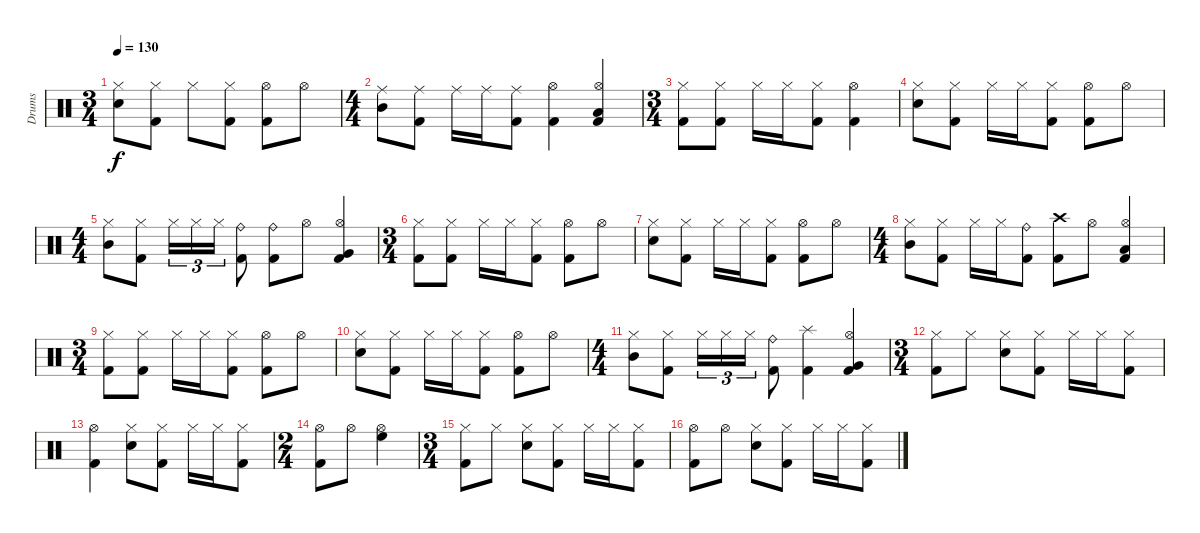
\track ("Drums" "Drums") {instrument percussion}
\staff {score}
\articulation defaults
\ts (3 4)
\tempo 130
\clef neutral
\ks c
("Hi-Hat (closed)" "Snare (hit) 2").8{dy f} ("Hi-Hat (closed)" "Kick (hit) 2").8 "Hi-Hat (closed)".8 ("Hi-Hat (closed)" "Kick (hit) 2").8 ("Hi-Hat (open)" "Kick (hit) 2").8 "Hi-Hat (open)".8 |
\ts (4 4)
("Ride (middle)" "Mid Tom (hit)").8 ("Ride (middle)" "Kick (hit) 2").8 "Ride (middle)".16 "Ride (middle)".16 ("Ride (middle)" "Kick (hit) 2").8 ("Hi-Hat (open)" "Kick (hit) 2").4 ("Hi-Hat (open)" "Low Floor Tom (hit)" "Kick (hit) 2").4 |
\ts (3 4)
("Hi-Hat (closed)" "Kick (hit) 2").8 ("Hi-Hat (closed)" "Kick (hit) 2").8 "Hi-Hat (closed)".16 "Hi-Hat (closed)".16 ("Hi-Hat (closed)" "Kick (hit) 2").8 ("Hi-Hat (open)" "Kick (hit) 2").4 |
("Hi-Hat (closed)" "Snare (hit) 2").8 ("Hi-Hat (closed)" "Kick (hit) 2").8 "Hi-Hat (closed)".16 "Hi-Hat (closed)".16 ("Hi-Hat (closed)" "Kick (hit) 2").8 ("Hi-Hat (open)" "Kick (hit) 2").8 "Hi-Hat (open)".8 |
\ts (4 4)
("Hi-Hat (closed)" "Mid Tom (hit)").8 ("Hi-Hat (closed)" "Kick (hit) 2").8 "Hi-Hat (closed)".16{tu (3 2)} "Hi-Hat (closed)".16{tu (3 2)} "Hi-Hat (closed)".16{tu (3 2)} ("Ride (bell)" "Kick (hit) 2").8 ("Ride (bell)" "Kick (hit) 2").8 "Hi-Hat (open)".8 ("Hi-Hat (open)" "Very Low Tom (hit)" "Kick (hit) 2").4 |
\ts (3 4)
("Hi-Hat (closed)" "Kick (hit) 2").8 ("Hi-Hat (closed)" "Kick (hit) 2").8 "Hi-Hat (closed)".16 "Hi-Hat (closed)".16 ("Hi-Hat (closed)" "Kick (hit) 2").8 ("Hi-Hat (open)" "Kick (hit) 2").8 "Hi-Hat (open)".8 |
("Hi-Hat (closed)" "Snare (hit) 2").8 ("Hi-Hat (closed)" "Kick (hit) 2").8 "Hi-Hat (closed)".16 "Hi-Hat (closed)".16 ("Hi-Hat (closed)" "Kick (hit) 2").8 ("Hi-Hat (open)" "Kick (hit) 2").8 "Hi-Hat (open)".8 |
\ts (4 4)
("Hi-Hat (closed)" "Mid Tom (hit)").8 ("Hi-Hat (closed)" "Kick (hit) 2").8 "Hi-Hat (closed)".16 "Hi-Hat (closed)".16 ("Ride (bell)" "Kick (hit) 2").8 ("Crash high (hit)" "Kick (hit) 2").8 "Hi-Hat (open)".8 ("Hi-Hat (open)" "Low Floor Tom (hit)" "Kick (hit) 2").4 |
\ts (3 4)
("Hi-Hat (closed)" "Kick (hit) 2").8 ("Hi-Hat (closed)" "Kick (hit) 2").8 "Hi-Hat (closed)".16 "Hi-Hat (closed)".16 ("Hi-Hat (closed)" "Kick (hit) 2").8 ("Hi-Hat (open)" "Kick (hit) 2").8 "Hi-Hat (open)".8 |
("Hi-Hat (closed)" "Snare (hit) 2").8 ("Hi-Hat (closed)" "Kick (hit) 2").8 "Hi-Hat (closed)".16 "Hi-Hat (closed)".16 ("Hi-Hat (closed)" "Kick (hit) 2").8 ("Hi-Hat (open)" "Kick (hit) 2").8 "Hi-Hat (open)".8 |
\ts (4 4)
("Hi-Hat (closed)" "Mid Tom (hit)").8 ("Hi-Hat (closed)" "Kick (hit) 2").8 "Hi-Hat (closed)".16{tu (3 2)} "Hi-Hat (closed)".16{tu (3 2)} "Hi-Hat (closed)".16{tu (3 2)} ("Ride (bell)" "Kick (hit) 2").8 ("Splash (hit)" "Kick (hit) 2").4 ("Hi-Hat (open)" "Very Low Tom (hit)" "Kick (hit) 2").4 |
\ts (3 4)
("Hi-Hat (closed)" "Kick (hit) 2").8 "Hi-Hat (closed)".8 ("Hi-Hat (closed)" "Snare (hit) 2").8 ("Hi-Hat (closed)" "Kick (hit) 2").8 "Hi-Hat (closed)".16 "Hi-Hat (closed)".16 ("Hi-Hat (closed)" "Kick (hit) 2").8 |
("Hi-Hat (open)" "Kick (hit) 2").4 ("Hi-Hat (closed)" "Snare (hit) 2").8 ("Hi-Hat (closed)" "Kick (hit) 2").8 "Hi-Hat (closed)".16 "Hi-Hat (closed)".16 ("Hi-Hat (closed)" "Kick (hit) 2").8 |
\ts (2 4)
("Hi-Hat (open)" "Kick (hit) 2").8 "Hi-Hat (open)".8 ("Hi-Hat (open)" "High Floor Tom (hit)").4 |
\ts (3 4)
("Hi-Hat (closed)" "Kick (hit) 2").8 "Hi-Hat (closed)".8 ("Hi-Hat (closed)" "Snare (hit) 2").8 ("Hi-Hat (closed)" "Kick (hit) 2").8 "Hi-Hat (closed)".16 "Hi-Hat (closed)".16 ("Hi-Hat (closed)" "Kick (hit) 2").8 |
("Hi-Hat (open)" "Kick (hit) 2").8 "Hi-Hat (open)".8 ("Hi-Hat (closed)" "Snare (hit) 2").8 ("Hi-Hat (closed)" "Kick (hit) 2").8 "Hi-Hat (closed)".16 "Hi-Hat (closed)".16 ("Hi-Hat (closed)" "Kick (hit) 2").8
